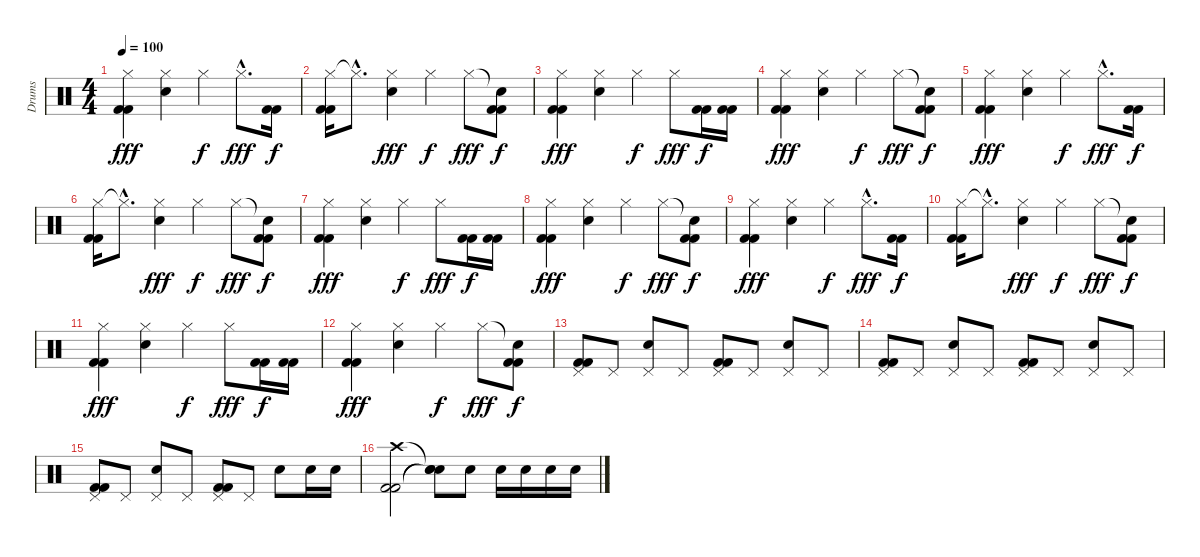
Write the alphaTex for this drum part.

\track ("Drums" "Drums") {instrument percussion}
\staff {score}
\articulation defaults
\ts (4 4)
\tempo 100
\clef neutral
\ks c
("Hi-Hat (closed)" "Kick (hit) 2" "Kick (hit) 2").4{dy fff} ("Hi-Hat (closed)" "Electric Snare (hit)").4 "Hi-Hat (closed)".4{dy f} "Hi-Hat (closed)"{hac}.8{d dy fff} ("Kick (hit) 2" "Kick (hit) 2").16{dy f} |
("Hi-Hat (closed)" "Kick (hit) 2" "Kick (hit) 2").16 "Hi-Hat (closed)"{hac t}.8{d} ("Hi-Hat (closed)" "Electric Snare (hit)").4{dy fff} "Hi-Hat (closed)".4{dy f} "Hi-Hat (closed)".8{dy fff} ("Snare (hit)"{t} "Kick (hit) 2" "Kick (hit) 2").8{dy f} |
("Hi-Hat (closed)" "Kick (hit) 2" "Kick (hit) 2").4{dy fff} ("Hi-Hat (closed)" "Electric Snare (hit)").4 "Hi-Hat (closed)".4{dy f} "Hi-Hat (closed)".8{dy fff} ("Kick (hit) 2" "Kick (hit) 2").16{dy f} ("Kick (hit) 2" "Kick (hit) 2").16 |
("Hi-Hat (closed)" "Kick (hit) 2" "Kick (hit) 2").4{dy fff} ("Hi-Hat (closed)" "Electric Snare (hit)").4 "Hi-Hat (closed)".4{dy f} "Hi-Hat (closed)".8{dy fff} ("Snare (hit)"{t} "Kick (hit) 2" "Kick (hit) 2").8{dy f} |
("Hi-Hat (closed)" "Kick (hit) 2" "Kick (hit) 2").4{dy fff} ("Hi-Hat (closed)" "Electric Snare (hit)").4 "Hi-Hat (closed)".4{dy f} "Hi-Hat (closed)"{hac}.8{d dy fff} ("Kick (hit) 2" "Kick (hit) 2").16{dy f} |
("Hi-Hat (closed)" "Kick (hit) 2" "Kick (hit) 2").16 "Hi-Hat (closed)"{hac t}.8{d} ("Hi-Hat (closed)" "Electric Snare (hit)").4{dy fff} "Hi-Hat (closed)".4{dy f} "Hi-Hat (closed)".8{dy fff} ("Snare (hit)"{t} "Kick (hit) 2" "Kick (hit) 2").8{dy f} |
("Hi-Hat (closed)" "Kick (hit) 2" "Kick (hit) 2").4{dy fff} ("Hi-Hat (closed)" "Electric Snare (hit)").4 "Hi-Hat (closed)".4{dy f} "Hi-Hat (closed)".8{dy fff} ("Kick (hit) 2" "Kick (hit) 2").16{dy f} ("Kick (hit) 2" "Kick (hit) 2").16 |
("Hi-Hat (closed)" "Kick (hit) 2" "Kick (hit) 2").4{dy fff} ("Hi-Hat (closed)" "Electric Snare (hit)").4 "Hi-Hat (closed)".4{dy f} "Hi-Hat (closed)".8{dy fff} ("Snare (hit)"{t} "Kick (hit) 2" "Kick (hit) 2").8{dy f} |
("Hi-Hat (closed)" "Kick (hit) 2" "Kick (hit) 2").4{dy fff} ("Hi-Hat (closed)" "Electric Snare (hit)").4 "Hi-Hat (closed)".4{dy f} "Hi-Hat (closed)"{hac}.8{d dy fff} ("Kick (hit) 2" "Kick (hit) 2").16{dy f} |
("Hi-Hat (closed)" "Kick (hit) 2" "Kick (hit) 2").16 "Hi-Hat (closed)"{hac t}.8{d} ("Hi-Hat (closed)" "Electric Snare (hit)").4{dy fff} "Hi-Hat (closed)".4{dy f} "Hi-Hat (closed)".8{dy fff} ("Snare (hit)"{t} "Kick (hit) 2" "Kick (hit) 2").8{dy f} |
("Hi-Hat (closed)" "Kick (hit) 2" "Kick (hit) 2").4{dy fff} ("Hi-Hat (closed)" "Electric Snare (hit)").4 "Hi-Hat (closed)".4{dy f} "Hi-Hat (closed)".8{dy fff} ("Kick (hit) 2" "Kick (hit) 2").16{dy f} ("Kick (hit) 2" "Kick (hit) 2").16 |
("Hi-Hat (closed)" "Kick (hit) 2" "Kick (hit) 2").4{dy fff} ("Hi-Hat (closed)" "Electric Snare (hit)").4 "Hi-Hat (closed)".4{dy f} "Hi-Hat (closed)".8{dy fff} ("Snare (hit)"{t} "Kick (hit) 2" "Kick (hit) 2").8{dy f} |
("Pedal Hi-Hat (hit)" "Kick (hit) 2" "Kick (hit) 2").8 "Pedal Hi-Hat (hit)".8 ("Pedal Hi-Hat (hit)" "Electric Snare (hit)").8 "Pedal Hi-Hat (hit)".8 ("Pedal Hi-Hat (hit)" "Kick (hit) 2" "Kick (hit) 2").8 "Pedal Hi-Hat (hit)".8 ("Pedal Hi-Hat (hit)" "Electric Snare (hit)").8 "Pedal Hi-Hat (hit)".8 |
("Pedal Hi-Hat (hit)" "Kick (hit) 2" "Kick (hit) 2").8 "Pedal Hi-Hat (hit)".8 ("Pedal Hi-Hat (hit)" "Electric Snare (hit)").8 "Pedal Hi-Hat (hit)".8 ("Pedal Hi-Hat (hit)" "Kick (hit) 2" "Kick (hit) 2").8 "Pedal Hi-Hat (hit)".8 ("Pedal Hi-Hat (hit)" "Electric Snare (hit)").8 "Pedal Hi-Hat (hit)".8 |
("Pedal Hi-Hat (hit)" "Kick (hit) 2" "Kick (hit) 2").8 "Pedal Hi-Hat (hit)".8 ("Pedal Hi-Hat (hit)" "Electric Snare (hit)").8 "Pedal Hi-Hat (hit)".8 ("Pedal Hi-Hat (hit)" "Kick (hit) 2" "Kick (hit) 2").8 "Pedal Hi-Hat (hit)".8 "Electric Snare (hit)".8 "Electric Snare (hit)".16 "Electric Snare (hit)".16 |
("Crash high (hit)" "Kick (hit) 2" "Kick (hit) 2").2 ("Snare (hit)"{t} "Snare (hit)"{t} "Snare (hit)"{t}).8 "Electric Snare (hit)".8 "Electric Snare (hit)".16 "Electric Snare (hit)".16 "Electric Snare (hit)".16 "Electric Snare (hit)".16
